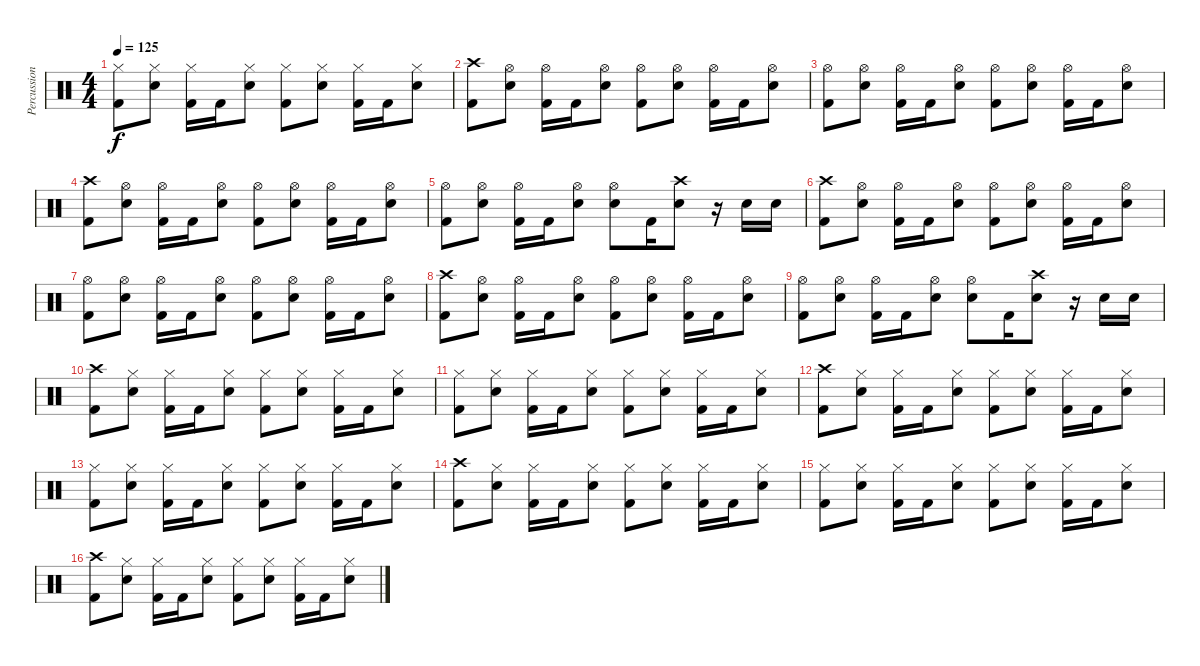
\track ("Percussion" "Percussion") {instrument percussion}
\staff {score}
\articulation defaults
\ts (4 4)
\tempo 125
\clef neutral
\ks c
("Hi-Hat (closed)" "Kick (hit) 2").8{dy f} ("Hi-Hat (closed)" "Electric Snare (hit)").8 ("Hi-Hat (closed)" "Kick (hit) 2").16 "Kick (hit) 2".16 ("Hi-Hat (closed)" "Electric Snare (hit)").8 ("Hi-Hat (closed)" "Kick (hit) 2").8 ("Hi-Hat (closed)" "Electric Snare (hit)").8 ("Hi-Hat (closed)" "Kick (hit) 2").16 "Kick (hit) 2".16 ("Hi-Hat (closed)" "Electric Snare (hit)").8 |
("Crash high (hit)" "Kick (hit) 2").8 ("Hi-Hat (open)" "Electric Snare (hit)").8 ("Hi-Hat (open)" "Kick (hit) 2").16 "Kick (hit) 2".16 ("Hi-Hat (open)" "Electric Snare (hit)").8 ("Hi-Hat (open)" "Kick (hit) 2").8 ("Hi-Hat (open)" "Electric Snare (hit)").8 ("Hi-Hat (open)" "Kick (hit) 2").16 "Kick (hit) 2".16 ("Hi-Hat (open)" "Electric Snare (hit)").8 |
("Hi-Hat (open)" "Kick (hit) 2").8 ("Hi-Hat (open)" "Electric Snare (hit)").8 ("Hi-Hat (open)" "Kick (hit) 2").16 "Kick (hit) 2".16 ("Hi-Hat (open)" "Electric Snare (hit)").8 ("Hi-Hat (open)" "Kick (hit) 2").8 ("Hi-Hat (open)" "Electric Snare (hit)").8 ("Hi-Hat (open)" "Kick (hit) 2").16 "Kick (hit) 2".16 ("Hi-Hat (open)" "Electric Snare (hit)").8 |
("Crash high (hit)" "Kick (hit) 2").8 ("Hi-Hat (open)" "Electric Snare (hit)").8 ("Hi-Hat (open)" "Kick (hit) 2").16 "Kick (hit) 2".16 ("Hi-Hat (open)" "Electric Snare (hit)").8 ("Hi-Hat (open)" "Kick (hit) 2").8 ("Hi-Hat (open)" "Electric Snare (hit)").8 ("Hi-Hat (open)" "Kick (hit) 2").16 "Kick (hit) 2".16 ("Hi-Hat (open)" "Electric Snare (hit)").8 |
("Hi-Hat (open)" "Kick (hit) 2").8 ("Hi-Hat (open)" "Electric Snare (hit)").8 ("Hi-Hat (open)" "Kick (hit) 2").16 "Kick (hit) 2".16 ("Hi-Hat (open)" "Electric Snare (hit)").8 ("Hi-Hat (open)" "Electric Snare (hit)").8 "Kick (hit) 2".16 ("Crash high (hit)" "Electric Snare (hit)").8 r.16 "Electric Snare (hit)".16 "Electric Snare (hit)".16 |
("Crash high (hit)" "Kick (hit) 2").8 ("Hi-Hat (open)" "Electric Snare (hit)").8 ("Hi-Hat (open)" "Kick (hit) 2").16 "Kick (hit) 2".16 ("Hi-Hat (open)" "Electric Snare (hit)").8 ("Hi-Hat (open)" "Kick (hit) 2").8 ("Hi-Hat (open)" "Electric Snare (hit)").8 ("Hi-Hat (open)" "Kick (hit) 2").16 "Kick (hit) 2".16 ("Hi-Hat (open)" "Electric Snare (hit)").8 |
("Hi-Hat (open)" "Kick (hit) 2").8 ("Hi-Hat (open)" "Electric Snare (hit)").8 ("Hi-Hat (open)" "Kick (hit) 2").16 "Kick (hit) 2".16 ("Hi-Hat (open)" "Electric Snare (hit)").8 ("Hi-Hat (open)" "Kick (hit) 2").8 ("Hi-Hat (open)" "Electric Snare (hit)").8 ("Hi-Hat (open)" "Kick (hit) 2").16 "Kick (hit) 2".16 ("Hi-Hat (open)" "Electric Snare (hit)").8 |
("Crash high (hit)" "Kick (hit) 2").8 ("Hi-Hat (open)" "Electric Snare (hit)").8 ("Hi-Hat (open)" "Kick (hit) 2").16 "Kick (hit) 2".16 ("Hi-Hat (open)" "Electric Snare (hit)").8 ("Hi-Hat (open)" "Kick (hit) 2").8 ("Hi-Hat (open)" "Electric Snare (hit)").8 ("Hi-Hat (open)" "Kick (hit) 2").16 "Kick (hit) 2".16 ("Hi-Hat (open)" "Electric Snare (hit)").8 |
("Hi-Hat (open)" "Kick (hit) 2").8 ("Hi-Hat (open)" "Electric Snare (hit)").8 ("Hi-Hat (open)" "Kick (hit) 2").16 "Kick (hit) 2".16 ("Hi-Hat (open)" "Electric Snare (hit)").8 ("Hi-Hat (open)" "Electric Snare (hit)").8 "Kick (hit) 2".16 ("Crash high (hit)" "Electric Snare (hit)").8 r.16 "Electric Snare (hit)".16 "Electric Snare (hit)".16 |
("Crash high (hit)" "Kick (hit) 2").8 ("Hi-Hat (closed)" "Electric Snare (hit)").8 ("Hi-Hat (closed)" "Kick (hit) 2").16 "Kick (hit) 2".16 ("Hi-Hat (closed)" "Electric Snare (hit)").8 ("Hi-Hat (closed)" "Kick (hit) 2").8 ("Hi-Hat (closed)" "Electric Snare (hit)").8 ("Hi-Hat (closed)" "Kick (hit) 2").16 "Kick (hit) 2".16 ("Hi-Hat (closed)" "Electric Snare (hit)").8 |
("Hi-Hat (closed)" "Kick (hit) 2").8 ("Hi-Hat (closed)" "Electric Snare (hit)").8 ("Hi-Hat (closed)" "Kick (hit) 2").16 "Kick (hit) 2".16 ("Hi-Hat (closed)" "Electric Snare (hit)").8 ("Hi-Hat (closed)" "Kick (hit) 2").8 ("Hi-Hat (closed)" "Electric Snare (hit)").8 ("Hi-Hat (closed)" "Kick (hit) 2").16 "Kick (hit) 2".16 ("Hi-Hat (closed)" "Electric Snare (hit)").8 |
("Crash high (hit)" "Kick (hit) 2").8 ("Hi-Hat (closed)" "Electric Snare (hit)").8 ("Hi-Hat (closed)" "Kick (hit) 2").16 "Kick (hit) 2".16 ("Hi-Hat (closed)" "Electric Snare (hit)").8 ("Hi-Hat (closed)" "Kick (hit) 2").8 ("Hi-Hat (closed)" "Electric Snare (hit)").8 ("Hi-Hat (closed)" "Kick (hit) 2").16 "Kick (hit) 2".16 ("Hi-Hat (closed)" "Electric Snare (hit)").8 |
("Hi-Hat (closed)" "Kick (hit) 2").8 ("Hi-Hat (closed)" "Electric Snare (hit)").8 ("Hi-Hat (closed)" "Kick (hit) 2").16 "Kick (hit) 2".16 ("Hi-Hat (closed)" "Electric Snare (hit)").8 ("Hi-Hat (closed)" "Kick (hit) 2").8 ("Hi-Hat (closed)" "Electric Snare (hit)").8 ("Hi-Hat (closed)" "Kick (hit) 2").16 "Kick (hit) 2".16 ("Hi-Hat (closed)" "Electric Snare (hit)").8 |
("Crash high (hit)" "Kick (hit) 2").8 ("Hi-Hat (closed)" "Electric Snare (hit)").8 ("Hi-Hat (closed)" "Kick (hit) 2").16 "Kick (hit) 2".16 ("Hi-Hat (closed)" "Electric Snare (hit)").8 ("Hi-Hat (closed)" "Kick (hit) 2").8 ("Hi-Hat (closed)" "Electric Snare (hit)").8 ("Hi-Hat (closed)" "Kick (hit) 2").16 "Kick (hit) 2".16 ("Hi-Hat (closed)" "Electric Snare (hit)").8 |
("Hi-Hat (closed)" "Kick (hit) 2").8 ("Hi-Hat (closed)" "Electric Snare (hit)").8 ("Hi-Hat (closed)" "Kick (hit) 2").16 "Kick (hit) 2".16 ("Hi-Hat (closed)" "Electric Snare (hit)").8 ("Hi-Hat (closed)" "Kick (hit) 2").8 ("Hi-Hat (closed)" "Electric Snare (hit)").8 ("Hi-Hat (closed)" "Kick (hit) 2").16 "Kick (hit) 2".16 ("Hi-Hat (closed)" "Electric Snare (hit)").8 |
("Crash high (hit)" "Kick (hit) 2").8 ("Hi-Hat (closed)" "Electric Snare (hit)").8 ("Hi-Hat (closed)" "Kick (hit) 2").16 "Kick (hit) 2".16 ("Hi-Hat (closed)" "Electric Snare (hit)").8 ("Hi-Hat (closed)" "Kick (hit) 2").8 ("Hi-Hat (closed)" "Electric Snare (hit)").8 ("Hi-Hat (closed)" "Kick (hit) 2").16 "Kick (hit) 2".16 ("Hi-Hat (closed)" "Electric Snare (hit)").8
